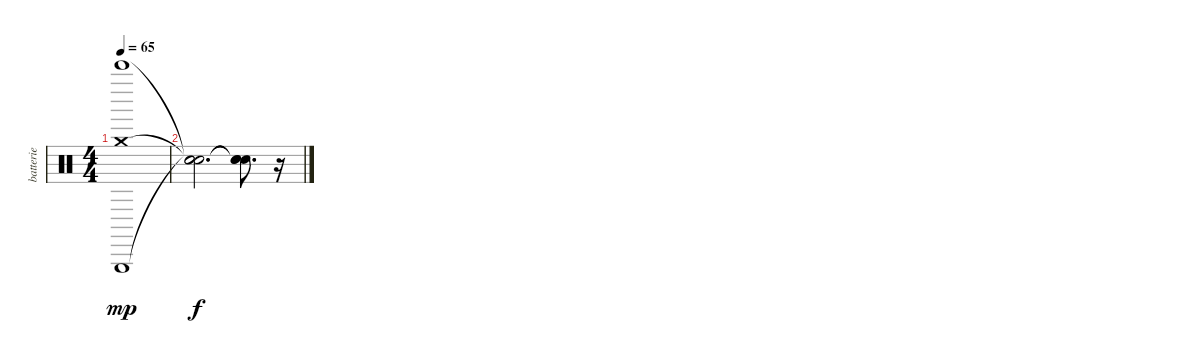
\track ("batterie" "batterie") {instrument percussion}
\staff {score}
\articulation defaults
\ts (4 4)
\tempo 65
\clef neutral
\ks c
("Crash medium (hit)" "Triangle (hit)" "Bell Tree (hit)").1{dy mp} |
("Snare (hit)"{t} "Snare (hit)"{t} "Snare (hit)"{t}).2{d dy f} ("Snare (hit)"{t} "Snare (hit)"{t} "Snare (hit)"{t}).8{d} r.16
